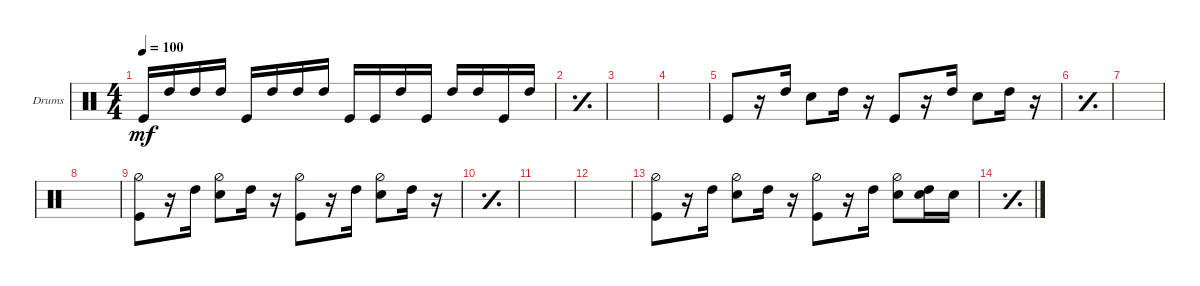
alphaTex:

\bracketExtendMode groupsimilarinstruments
\firstSystemTrackNameOrientation horizontal
\otherSystemsTrackNameOrientation horizontal
\track ("Drumkit" "Drums") {instrument percussion}
\staff {score}
\articulation defaults
\ts (4 4)
\tempo 100
\clef neutral
\scale
0.333333
\ks c "Kick (hit)".16{dy mf} "High Tom (hit)".16 "High Tom (hit)".16 "High Tom (hit)".16 "Kick (hit)".16 "High Tom (hit)".16 "High Tom (hit)".16 "High Tom (hit)".16 "Kick (hit)".16 "Kick (hit)".16 "High Tom (hit)".16 "Kick (hit)".16 "High Tom (hit)".16 "High Tom (hit)".16 "Kick (hit)".16 "High Tom (hit)".16
|
\simile simple
\scale
0.333333 |
|
\scale
0.333333 |
\simile none
\scale
0.333333 "Kick (hit)".8 r.16 "High Tom (hit)".16 "Snare (hit) 2".8 "High Tom (hit)".16 r.16 "Kick (hit)".8 r.16 "High Tom (hit)".16 "Snare (hit) 2".8 "High Tom (hit)".16 r.16 |
\simile simple
\scale
0.333333 |
|
\scale
0.333333 |
\simile none
\scale
0.333333 ("Kick (hit)" "Hi-Hat (half)").8 r.16 "High Tom (hit)".16 ("Snare (hit) 2" "Hi-Hat (half)").8 "High Tom (hit)".16 r.16 ("Kick (hit)" "Hi-Hat (half)").8 r.16 "High Tom (hit)".16 ("Snare (hit) 2" "Hi-Hat (half)").8 "High Tom (hit)".16 r.16 |
\simile simple
\scale
0.333333 |
|
\scale
0.333333 |
\simile none
\scale
0.333333 ("Kick (hit)" "Hi-Hat (half)").8 r.16 "High Tom (hit)".16 ("Snare (hit) 2" "Hi-Hat (half)").8 "High Tom (hit)".16 r.16 ("Kick (hit)" "Hi-Hat (half)").8 r.16 "High Tom (hit)".16 ("Snare (hit) 2" "Hi-Hat (half)").8 ("High Tom (hit)" "Snare (hit) 2").16 "Snare (hit) 2".16 |
\simile simple
\scale
0.333333 |
|
\scale
0.333333
